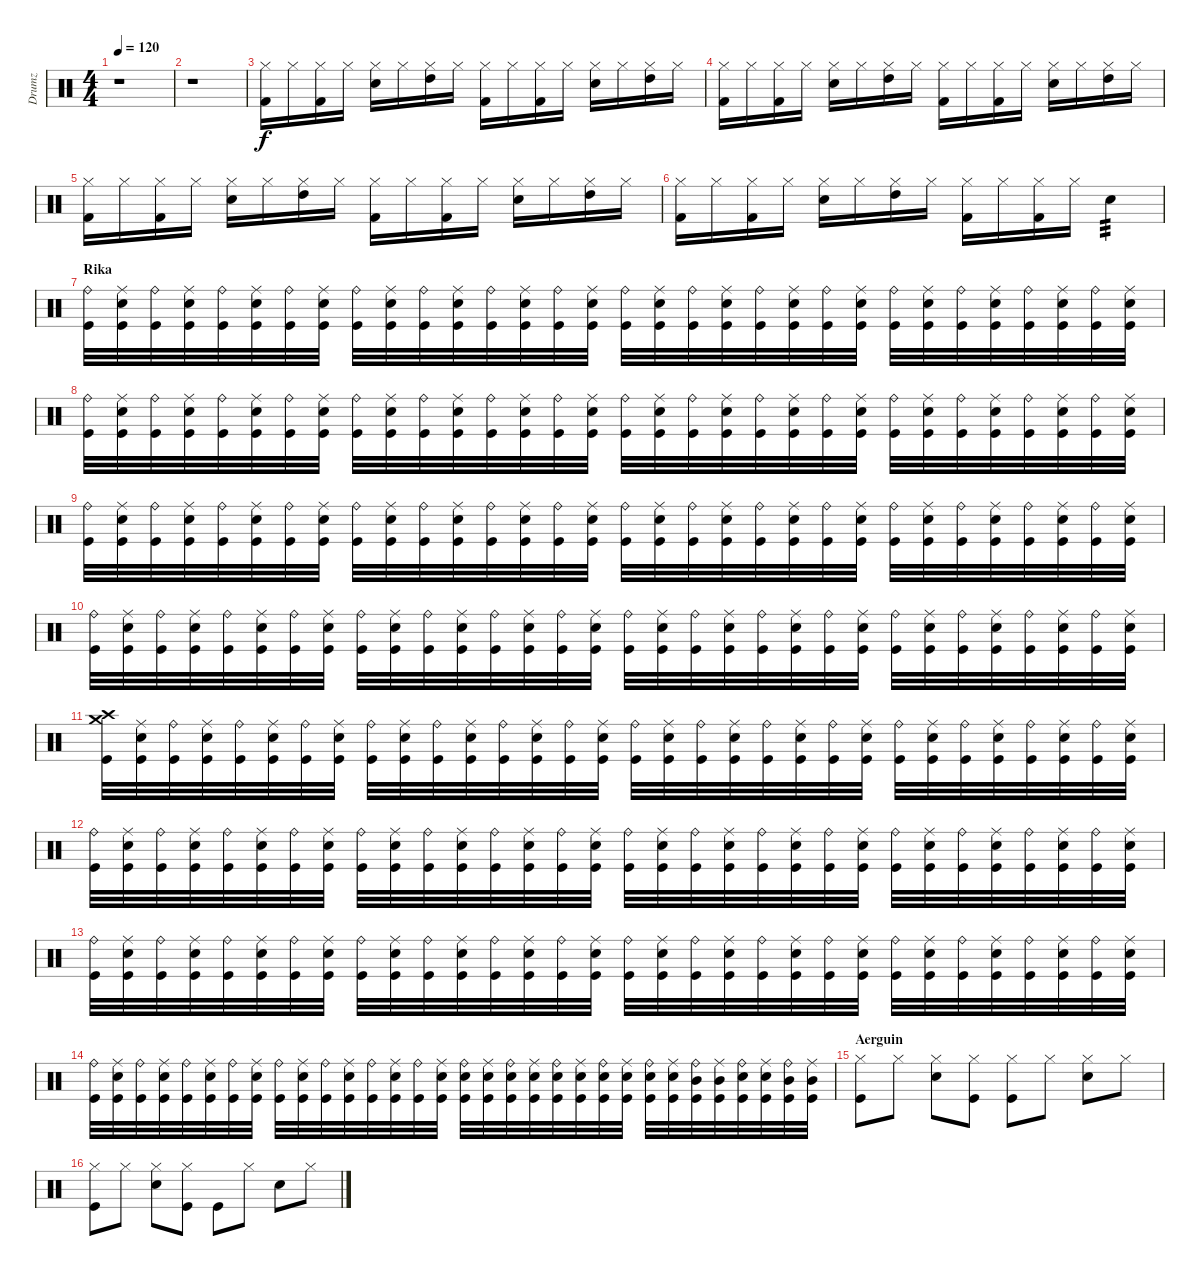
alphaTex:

\track ("Drumz" "Drumz") {instrument percussion}
\staff {score}
\articulation defaults
\ts (4 4)
\tempo 120
\clef neutral
\ks c
r.1{dy fff} |
r.1 |
("Hi-Hat (closed)" "Kick (hit) 2").16{dy f} "Hi-Hat (closed)".16 ("Hi-Hat (closed)" "Kick (hit) 2").16 "Hi-Hat (closed)".16 ("Hi-Hat (closed)" "Snare (hit) 2").16 "Hi-Hat (closed)".16 ("Hi-Hat (closed)" "High Tom (hit)").16 "Hi-Hat (closed)".16 ("Hi-Hat (closed)" "Kick (hit) 2").16 "Hi-Hat (closed)".16 ("Hi-Hat (closed)" "Kick (hit) 2").16 "Hi-Hat (closed)".16 ("Hi-Hat (closed)" "Snare (hit) 2").16 "Hi-Hat (closed)".16 ("Hi-Hat (closed)" "High Tom (hit)").16 "Hi-Hat (closed)".16 |
("Hi-Hat (closed)" "Kick (hit) 2").16 "Hi-Hat (closed)".16 ("Hi-Hat (closed)" "Kick (hit) 2").16 "Hi-Hat (closed)".16 ("Hi-Hat (closed)" "Snare (hit) 2").16 "Hi-Hat (closed)".16 ("Hi-Hat (closed)" "High Tom (hit)").16 "Hi-Hat (closed)".16 ("Hi-Hat (closed)" "Kick (hit) 2").16 "Hi-Hat (closed)".16 ("Hi-Hat (closed)" "Kick (hit) 2").16 "Hi-Hat (closed)".16 ("Hi-Hat (closed)" "Snare (hit) 2").16 "Hi-Hat (closed)".16 ("Hi-Hat (closed)" "High Tom (hit)").16 "Hi-Hat (closed)".16 |
("Hi-Hat (closed)" "Kick (hit) 2").16 "Hi-Hat (closed)".16 ("Hi-Hat (closed)" "Kick (hit) 2").16 "Hi-Hat (closed)".16 ("Hi-Hat (closed)" "Snare (hit) 2").16 "Hi-Hat (closed)".16 ("Hi-Hat (closed)" "High Tom (hit)").16 "Hi-Hat (closed)".16 ("Hi-Hat (closed)" "Kick (hit) 2").16 "Hi-Hat (closed)".16 ("Hi-Hat (closed)" "Kick (hit) 2").16 "Hi-Hat (closed)".16 ("Hi-Hat (closed)" "Snare (hit) 2").16 "Hi-Hat (closed)".16 ("Hi-Hat (closed)" "High Tom (hit)").16 "Hi-Hat (closed)".16 |
("Hi-Hat (closed)" "Kick (hit) 2").16 "Hi-Hat (closed)".16 ("Hi-Hat (closed)" "Kick (hit) 2").16 "Hi-Hat (closed)".16 ("Hi-Hat (closed)" "Snare (hit) 2").16 "Hi-Hat (closed)".16 ("Hi-Hat (closed)" "High Tom (hit)").16 "Hi-Hat (closed)".16 ("Hi-Hat (closed)" "Kick (hit) 2").16 "Hi-Hat (closed)".16 ("Hi-Hat (closed)" "Kick (hit) 2").16 "Hi-Hat (closed)".16 "Electric Snare (hit)".4{tp 3} |
\section ("" "Rika")
("Ride (bell)" "Kick (hit)").32 ("Ride (middle)" "Electric Snare (hit)" "Kick (hit)").32 ("Ride (bell)" "Kick (hit)").32 ("Ride (middle)" "Electric Snare (hit)" "Kick (hit)").32 ("Ride (bell)" "Kick (hit)").32 ("Ride (middle)" "Electric Snare (hit)" "Kick (hit)").32 ("Ride (bell)" "Kick (hit)").32 ("Ride (middle)" "Electric Snare (hit)" "Kick (hit)").32 ("Ride (bell)" "Kick (hit)").32 ("Ride (middle)" "Electric Snare (hit)" "Kick (hit)").32 ("Ride (bell)" "Kick (hit)").32 ("Ride (middle)" "Electric Snare (hit)" "Kick (hit)").32 ("Ride (bell)" "Kick (hit)").32 ("Ride (middle)" "Electric Snare (hit)" "Kick (hit)").32 ("Ride (bell)" "Kick (hit)").32 ("Ride (middle)" "Electric Snare (hit)" "Kick (hit)").32 ("Ride (bell)" "Kick (hit)").32 ("Ride (middle)" "Electric Snare (hit)" "Kick (hit)").32 ("Ride (bell)" "Kick (hit)").32 ("Ride (middle)" "Electric Snare (hit)" "Kick (hit)").32 ("Ride (bell)" "Kick (hit)").32 ("Ride (middle)" "Electric Snare (hit)" "Kick (hit)").32 ("Ride (bell)" "Kick (hit)").32 ("Ride (middle)" "Electric Snare (hit)" "Kick (hit)").32 ("Ride (bell)" "Kick (hit)").32 ("Ride (middle)" "Electric Snare (hit)" "Kick (hit)").32 ("Ride (bell)" "Kick (hit)").32 ("Ride (middle)" "Electric Snare (hit)" "Kick (hit)").32 ("Ride (bell)" "Kick (hit)").32 ("Ride (middle)" "Electric Snare (hit)" "Kick (hit)").32 ("Ride (bell)" "Kick (hit)").32 ("Ride (middle)" "Electric Snare (hit)" "Kick (hit)").32 |
("Ride (bell)" "Kick (hit)").32 ("Ride (middle)" "Electric Snare (hit)" "Kick (hit)").32 ("Ride (bell)" "Kick (hit)").32 ("Ride (middle)" "Electric Snare (hit)" "Kick (hit)").32 ("Ride (bell)" "Kick (hit)").32 ("Ride (middle)" "Electric Snare (hit)" "Kick (hit)").32 ("Ride (bell)" "Kick (hit)").32 ("Ride (middle)" "Electric Snare (hit)" "Kick (hit)").32 ("Ride (bell)" "Kick (hit)").32 ("Ride (middle)" "Electric Snare (hit)" "Kick (hit)").32 ("Ride (bell)" "Kick (hit)").32 ("Ride (middle)" "Electric Snare (hit)" "Kick (hit)").32 ("Ride (bell)" "Kick (hit)").32 ("Ride (middle)" "Electric Snare (hit)" "Kick (hit)").32 ("Ride (bell)" "Kick (hit)").32 ("Ride (middle)" "Electric Snare (hit)" "Kick (hit)").32 ("Ride (bell)" "Kick (hit)").32 ("Ride (middle)" "Electric Snare (hit)" "Kick (hit)").32 ("Ride (bell)" "Kick (hit)").32 ("Ride (middle)" "Electric Snare (hit)" "Kick (hit)").32 ("Ride (bell)" "Kick (hit)").32 ("Ride (middle)" "Electric Snare (hit)" "Kick (hit)").32 ("Ride (bell)" "Kick (hit)").32 ("Ride (middle)" "Electric Snare (hit)" "Kick (hit)").32 ("Ride (bell)" "Kick (hit)").32 ("Ride (middle)" "Electric Snare (hit)" "Kick (hit)").32 ("Ride (bell)" "Kick (hit)").32 ("Ride (middle)" "Electric Snare (hit)" "Kick (hit)").32 ("Ride (bell)" "Kick (hit)").32 ("Ride (middle)" "Electric Snare (hit)" "Kick (hit)").32 ("Ride (bell)" "Kick (hit)").32 ("Ride (middle)" "Electric Snare (hit)" "Kick (hit)").32 |
("Ride (bell)" "Kick (hit)").32 ("Ride (middle)" "Electric Snare (hit)" "Kick (hit)").32 ("Ride (bell)" "Kick (hit)").32 ("Ride (middle)" "Electric Snare (hit)" "Kick (hit)").32 ("Ride (bell)" "Kick (hit)").32 ("Ride (middle)" "Electric Snare (hit)" "Kick (hit)").32 ("Ride (bell)" "Kick (hit)").32 ("Ride (middle)" "Electric Snare (hit)" "Kick (hit)").32 ("Ride (bell)" "Kick (hit)").32 ("Ride (middle)" "Electric Snare (hit)" "Kick (hit)").32 ("Ride (bell)" "Kick (hit)").32 ("Ride (middle)" "Electric Snare (hit)" "Kick (hit)").32 ("Ride (bell)" "Kick (hit)").32 ("Ride (middle)" "Electric Snare (hit)" "Kick (hit)").32 ("Ride (bell)" "Kick (hit)").32 ("Ride (middle)" "Electric Snare (hit)" "Kick (hit)").32 ("Ride (bell)" "Kick (hit)").32 ("Ride (middle)" "Electric Snare (hit)" "Kick (hit)").32 ("Ride (bell)" "Kick (hit)").32 ("Ride (middle)" "Electric Snare (hit)" "Kick (hit)").32 ("Ride (bell)" "Kick (hit)").32 ("Ride (middle)" "Electric Snare (hit)" "Kick (hit)").32 ("Ride (bell)" "Kick (hit)").32 ("Ride (middle)" "Electric Snare (hit)" "Kick (hit)").32 ("Ride (bell)" "Kick (hit)").32 ("Ride (middle)" "Electric Snare (hit)" "Kick (hit)").32 ("Ride (bell)" "Kick (hit)").32 ("Ride (middle)" "Electric Snare (hit)" "Kick (hit)").32 ("Ride (bell)" "Kick (hit)").32 ("Ride (middle)" "Electric Snare (hit)" "Kick (hit)").32 ("Ride (bell)" "Kick (hit)").32 ("Ride (middle)" "Electric Snare (hit)" "Kick (hit)").32 |
("Ride (bell)" "Kick (hit)").32 ("Ride (middle)" "Electric Snare (hit)" "Kick (hit)").32 ("Ride (bell)" "Kick (hit)").32 ("Ride (middle)" "Electric Snare (hit)" "Kick (hit)").32 ("Ride (bell)" "Kick (hit)").32 ("Ride (middle)" "Electric Snare (hit)" "Kick (hit)").32 ("Ride (bell)" "Kick (hit)").32 ("Ride (middle)" "Electric Snare (hit)" "Kick (hit)").32 ("Ride (bell)" "Kick (hit)").32 ("Ride (middle)" "Electric Snare (hit)" "Kick (hit)").32 ("Ride (bell)" "Kick (hit)").32 ("Ride (middle)" "Electric Snare (hit)" "Kick (hit)").32 ("Ride (bell)" "Kick (hit)").32 ("Ride (middle)" "Electric Snare (hit)" "Kick (hit)").32 ("Ride (bell)" "Kick (hit)").32 ("Ride (middle)" "Electric Snare (hit)" "Kick (hit)").32 ("Ride (bell)" "Kick (hit)").32 ("Ride (middle)" "Electric Snare (hit)" "Kick (hit)").32 ("Ride (bell)" "Kick (hit)").32 ("Ride (middle)" "Electric Snare (hit)" "Kick (hit)").32 ("Ride (bell)" "Kick (hit)").32 ("Ride (middle)" "Electric Snare (hit)" "Kick (hit)").32 ("Ride (bell)" "Kick (hit)").32 ("Ride (middle)" "Electric Snare (hit)" "Kick (hit)").32 ("Ride (bell)" "Kick (hit)").32 ("Ride (middle)" "Electric Snare (hit)" "Kick (hit)").32 ("Ride (bell)" "Kick (hit)").32 ("Ride (middle)" "Electric Snare (hit)" "Kick (hit)").32 ("Ride (bell)" "Kick (hit)").32 ("Ride (middle)" "Electric Snare (hit)" "Kick (hit)").32 ("Ride (bell)" "Kick (hit)").32 ("Ride (middle)" "Electric Snare (hit)" "Kick (hit)").32 |
("Crash high (hit)" "Crash medium (hit)" "Kick (hit)").32 ("Ride (middle)" "Electric Snare (hit)" "Kick (hit)").32 ("Ride (bell)" "Kick (hit)").32 ("Ride (middle)" "Electric Snare (hit)" "Kick (hit)").32 ("Ride (bell)" "Kick (hit)").32 ("Ride (middle)" "Electric Snare (hit)" "Kick (hit)").32 ("Ride (bell)" "Kick (hit)").32 ("Ride (middle)" "Electric Snare (hit)" "Kick (hit)").32 ("Ride (bell)" "Kick (hit)").32 ("Ride (middle)" "Electric Snare (hit)" "Kick (hit)").32 ("Ride (bell)" "Kick (hit)").32 ("Ride (middle)" "Electric Snare (hit)" "Kick (hit)").32 ("Ride (bell)" "Kick (hit)").32 ("Ride (middle)" "Electric Snare (hit)" "Kick (hit)").32 ("Ride (bell)" "Kick (hit)").32 ("Ride (middle)" "Electric Snare (hit)" "Kick (hit)").32 ("Ride (bell)" "Kick (hit)").32 ("Ride (middle)" "Electric Snare (hit)" "Kick (hit)").32 ("Ride (bell)" "Kick (hit)").32 ("Ride (middle)" "Electric Snare (hit)" "Kick (hit)").32 ("Ride (bell)" "Kick (hit)").32 ("Ride (middle)" "Electric Snare (hit)" "Kick (hit)").32 ("Ride (bell)" "Kick (hit)").32 ("Ride (middle)" "Electric Snare (hit)" "Kick (hit)").32 ("Ride (bell)" "Kick (hit)").32 ("Ride (middle)" "Electric Snare (hit)" "Kick (hit)").32 ("Ride (bell)" "Kick (hit)").32 ("Ride (middle)" "Electric Snare (hit)" "Kick (hit)").32 ("Ride (bell)" "Kick (hit)").32 ("Ride (middle)" "Electric Snare (hit)" "Kick (hit)").32 ("Ride (bell)" "Kick (hit)").32 ("Ride (middle)" "Electric Snare (hit)" "Kick (hit)").32 |
("Ride (bell)" "Kick (hit)").32 ("Ride (middle)" "Electric Snare (hit)" "Kick (hit)").32 ("Ride (bell)" "Kick (hit)").32 ("Ride (middle)" "Electric Snare (hit)" "Kick (hit)").32 ("Ride (bell)" "Kick (hit)").32 ("Ride (middle)" "Electric Snare (hit)" "Kick (hit)").32 ("Ride (bell)" "Kick (hit)").32 ("Ride (middle)" "Electric Snare (hit)" "Kick (hit)").32 ("Ride (bell)" "Kick (hit)").32 ("Ride (middle)" "Electric Snare (hit)" "Kick (hit)").32 ("Ride (bell)" "Kick (hit)").32 ("Ride (middle)" "Electric Snare (hit)" "Kick (hit)").32 ("Ride (bell)" "Kick (hit)").32 ("Ride (middle)" "Electric Snare (hit)" "Kick (hit)").32 ("Ride (bell)" "Kick (hit)").32 ("Ride (middle)" "Electric Snare (hit)" "Kick (hit)").32 ("Ride (bell)" "Kick (hit)").32 ("Ride (middle)" "Electric Snare (hit)" "Kick (hit)").32 ("Ride (bell)" "Kick (hit)").32 ("Ride (middle)" "Electric Snare (hit)" "Kick (hit)").32 ("Ride (bell)" "Kick (hit)").32 ("Ride (middle)" "Electric Snare (hit)" "Kick (hit)").32 ("Ride (bell)" "Kick (hit)").32 ("Ride (middle)" "Electric Snare (hit)" "Kick (hit)").32 ("Ride (bell)" "Kick (hit)").32 ("Ride (middle)" "Electric Snare (hit)" "Kick (hit)").32 ("Ride (bell)" "Kick (hit)").32 ("Ride (middle)" "Electric Snare (hit)" "Kick (hit)").32 ("Ride (bell)" "Kick (hit)").32 ("Ride (middle)" "Electric Snare (hit)" "Kick (hit)").32 ("Ride (bell)" "Kick (hit)").32 ("Ride (middle)" "Electric Snare (hit)" "Kick (hit)").32 |
("Ride (bell)" "Kick (hit)").32 ("Ride (middle)" "Electric Snare (hit)" "Kick (hit)").32 ("Ride (bell)" "Kick (hit)").32 ("Ride (middle)" "Electric Snare (hit)" "Kick (hit)").32 ("Ride (bell)" "Kick (hit)").32 ("Ride (middle)" "Electric Snare (hit)" "Kick (hit)").32 ("Ride (bell)" "Kick (hit)").32 ("Ride (middle)" "Electric Snare (hit)" "Kick (hit)").32 ("Ride (bell)" "Kick (hit)").32 ("Ride (middle)" "Electric Snare (hit)" "Kick (hit)").32 ("Ride (bell)" "Kick (hit)").32 ("Ride (middle)" "Electric Snare (hit)" "Kick (hit)").32 ("Ride (bell)" "Kick (hit)").32 ("Ride (middle)" "Electric Snare (hit)" "Kick (hit)").32 ("Ride (bell)" "Kick (hit)").32 ("Ride (middle)" "Electric Snare (hit)" "Kick (hit)").32 ("Ride (bell)" "Kick (hit)").32 ("Ride (middle)" "Electric Snare (hit)" "Kick (hit)").32 ("Ride (bell)" "Kick (hit)").32 ("Ride (middle)" "Electric Snare (hit)" "Kick (hit)").32 ("Ride (bell)" "Kick (hit)").32 ("Ride (middle)" "Electric Snare (hit)" "Kick (hit)").32 ("Ride (bell)" "Kick (hit)").32 ("Ride (middle)" "Electric Snare (hit)" "Kick (hit)").32 ("Ride (bell)" "Kick (hit)").32 ("Ride (middle)" "Electric Snare (hit)" "Kick (hit)").32 ("Ride (bell)" "Kick (hit)").32 ("Ride (middle)" "Electric Snare (hit)" "Kick (hit)").32 ("Ride (bell)" "Kick (hit)").32 ("Ride (middle)" "Electric Snare (hit)" "Kick (hit)").32 ("Ride (bell)" "Kick (hit)").32 ("Ride (middle)" "Electric Snare (hit)" "Kick (hit)").32 |
("Ride (bell)" "Kick (hit)").32 ("Ride (middle)" "Electric Snare (hit)" "Kick (hit)").32 ("Ride (bell)" "Kick (hit)").32 ("Ride (middle)" "Electric Snare (hit)" "Kick (hit)").32 ("Ride (bell)" "Kick (hit)").32 ("Ride (middle)" "Electric Snare (hit)" "Kick (hit)").32 ("Ride (bell)" "Kick (hit)").32 ("Ride (middle)" "Electric Snare (hit)" "Kick (hit)").32 ("Ride (bell)" "Kick (hit)").32 ("Ride (middle)" "Electric Snare (hit)" "Kick (hit)").32 ("Ride (bell)" "Kick (hit)").32 ("Ride (middle)" "Electric Snare (hit)" "Kick (hit)").32 ("Ride (bell)" "Kick (hit)").32 ("Ride (middle)" "Electric Snare (hit)" "Kick (hit)").32 ("Ride (bell)" "Kick (hit)").32 ("Ride (middle)" "Electric Snare (hit)" "Kick (hit)").32 ("Ride (bell)" "Electric Snare (hit)" "Kick (hit)").32 ("Ride (middle)" "Electric Snare (hit)" "Kick (hit)").32 ("Ride (bell)" "Electric Snare (hit)" "Kick (hit)").32 ("Ride (middle)" "Electric Snare (hit)" "Kick (hit)").32 ("Ride (bell)" "Electric Snare (hit)" "Kick (hit)").32 ("Ride (middle)" "Electric Snare (hit)" "Kick (hit)").32 ("Ride (bell)" "Electric Snare (hit)" "Kick (hit)").32 ("Ride (middle)" "Electric Snare (hit)" "Kick (hit)").32 ("Ride (bell)" "Electric Snare (hit)" "Kick (hit)").32 ("Ride (middle)" "Electric Snare (hit)" "Kick (hit)").32 ("Ride (bell)" "Mid Tom (hit)" "Kick (hit)").32 ("Ride (middle)" "Mid Tom (hit)" "Kick (hit)").32 ("Ride (bell)" "Electric Snare (hit)" "Kick (hit)").32 ("Ride (middle)" "Electric Snare (hit)" "Kick (hit)").32 ("Ride (bell)" "Mid Tom (hit)" "Kick (hit)").32 ("Ride (middle)" "Mid Tom (hit)" "Kick (hit)").32 |
\section ("" "Aerguin")
("Hi-Hat (closed)" "Kick (hit)").8 "Hi-Hat (closed)".8 ("Hi-Hat (closed)" "Electric Snare (hit)").8 ("Hi-Hat (closed)" "Kick (hit)").8 ("Hi-Hat (closed)" "Kick (hit)").8 "Hi-Hat (closed)".8 ("Hi-Hat (closed)" "Electric Snare (hit)").8 "Hi-Hat (closed)".8 |
("Hi-Hat (closed)" "Kick (hit)").8 "Hi-Hat (closed)".8 ("Hi-Hat (closed)" "Electric Snare (hit)").8 ("Hi-Hat (closed)" "Kick (hit)").8 "Kick (hit)".8 "Hi-Hat (closed)".8 "Electric Snare (hit)".8 "Hi-Hat (closed)".8
